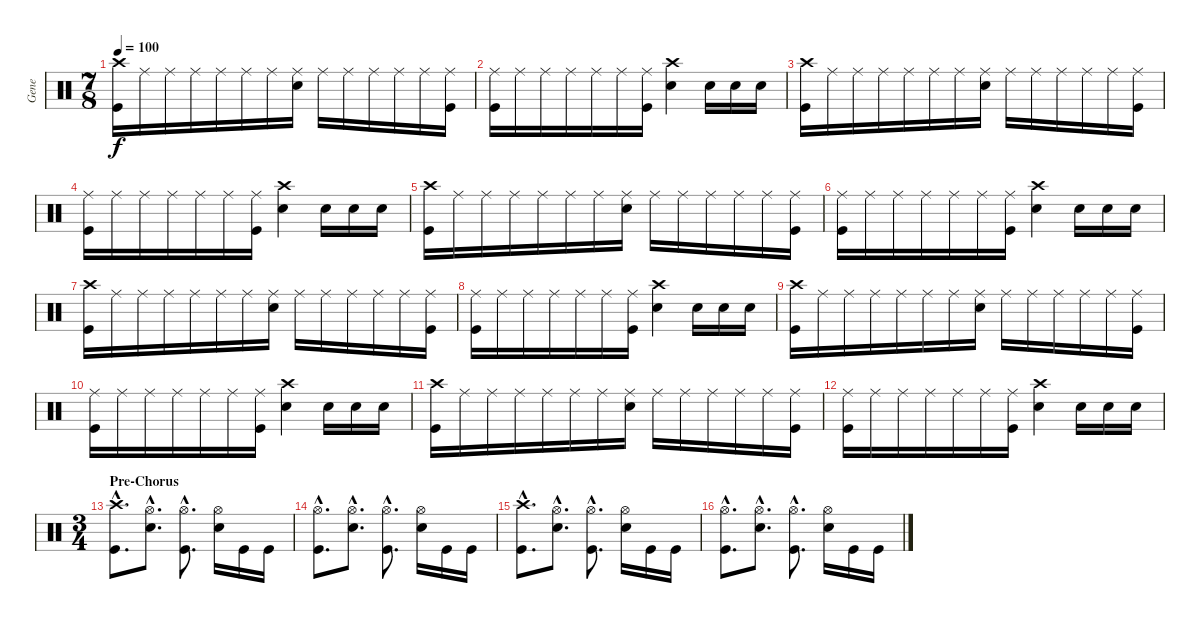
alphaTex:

\track ("Gene" "Gene") {instrument percussion}
\staff {score}
\articulation defaults
\ts (7 8)
\tempo 100
\clef neutral
\ks c
("Crash high (hit)" "Kick (hit)").16{dy f} "Ride (middle)".16 "Ride (middle)".16 "Ride (middle)".16 "Ride (middle)".16 "Ride (middle)".16 "Ride (middle)".16 ("Ride (middle)" "Snare (hit) 2").16 "Ride (middle)".16 "Ride (middle)".16 "Ride (middle)".16 "Ride (middle)".16 "Ride (middle)".16 ("Ride (middle)" "Kick (hit)").16 |
("Ride (middle)" "Kick (hit)").16 "Ride (middle)".16 "Ride (middle)".16 "Ride (middle)".16 "Ride (middle)".16 "Ride (middle)".16 ("Ride (middle)" "Kick (hit)").16 ("Crash high (hit)" "Snare (hit) 2").4 "Snare (hit) 2".16 "Snare (hit) 2".16 "Snare (hit) 2".16 |
("Crash high (hit)" "Kick (hit)").16 "Ride (middle)".16 "Ride (middle)".16 "Ride (middle)".16 "Ride (middle)".16 "Ride (middle)".16 "Ride (middle)".16 ("Ride (middle)" "Snare (hit) 2").16 "Ride (middle)".16 "Ride (middle)".16 "Ride (middle)".16 "Ride (middle)".16 "Ride (middle)".16 ("Ride (middle)" "Kick (hit)").16 |
("Ride (middle)" "Kick (hit)").16 "Ride (middle)".16 "Ride (middle)".16 "Ride (middle)".16 "Ride (middle)".16 "Ride (middle)".16 ("Ride (middle)" "Kick (hit)").16 ("Crash high (hit)" "Snare (hit) 2").4 "Snare (hit) 2".16 "Snare (hit) 2".16 "Snare (hit) 2".16 |
("Crash high (hit)" "Kick (hit)").16 "Ride (middle)".16 "Ride (middle)".16 "Ride (middle)".16 "Ride (middle)".16 "Ride (middle)".16 "Ride (middle)".16 ("Ride (middle)" "Snare (hit) 2").16 "Ride (middle)".16 "Ride (middle)".16 "Ride (middle)".16 "Ride (middle)".16 "Ride (middle)".16 ("Ride (middle)" "Kick (hit)").16 |
("Ride (middle)" "Kick (hit)").16 "Ride (middle)".16 "Ride (middle)".16 "Ride (middle)".16 "Ride (middle)".16 "Ride (middle)".16 ("Ride (middle)" "Kick (hit)").16 ("Crash high (hit)" "Snare (hit) 2").4 "Snare (hit) 2".16 "Snare (hit) 2".16 "Snare (hit) 2".16 |
("Crash high (hit)" "Kick (hit)").16 "Ride (middle)".16 "Ride (middle)".16 "Ride (middle)".16 "Ride (middle)".16 "Ride (middle)".16 "Ride (middle)".16 ("Ride (middle)" "Snare (hit) 2").16 "Ride (middle)".16 "Ride (middle)".16 "Ride (middle)".16 "Ride (middle)".16 "Ride (middle)".16 ("Ride (middle)" "Kick (hit)").16 |
("Ride (middle)" "Kick (hit)").16 "Ride (middle)".16 "Ride (middle)".16 "Ride (middle)".16 "Ride (middle)".16 "Ride (middle)".16 ("Ride (middle)" "Kick (hit)").16 ("Crash high (hit)" "Snare (hit) 2").4 "Snare (hit) 2".16 "Snare (hit) 2".16 "Snare (hit) 2".16 |
("Crash high (hit)" "Kick (hit)").16 "Ride (middle)".16 "Ride (middle)".16 "Ride (middle)".16 "Ride (middle)".16 "Ride (middle)".16 "Ride (middle)".16 ("Ride (middle)" "Snare (hit) 2").16 "Ride (middle)".16 "Ride (middle)".16 "Ride (middle)".16 "Ride (middle)".16 "Ride (middle)".16 ("Ride (middle)" "Kick (hit)").16 |
("Ride (middle)" "Kick (hit)").16 "Ride (middle)".16 "Ride (middle)".16 "Ride (middle)".16 "Ride (middle)".16 "Ride (middle)".16 ("Ride (middle)" "Kick (hit)").16 ("Crash high (hit)" "Snare (hit) 2").4 "Snare (hit) 2".16 "Snare (hit) 2".16 "Snare (hit) 2".16 |
("Crash high (hit)" "Kick (hit)").16 "Ride (middle)".16 "Ride (middle)".16 "Ride (middle)".16 "Ride (middle)".16 "Ride (middle)".16 "Ride (middle)".16 ("Ride (middle)" "Snare (hit) 2").16 "Ride (middle)".16 "Ride (middle)".16 "Ride (middle)".16 "Ride (middle)".16 "Ride (middle)".16 ("Ride (middle)" "Kick (hit)").16 |
("Ride (middle)" "Kick (hit)").16 "Ride (middle)".16 "Ride (middle)".16 "Ride (middle)".16 "Ride (middle)".16 "Ride (middle)".16 ("Ride (middle)" "Kick (hit)").16 ("Crash high (hit)" "Snare (hit) 2").4 "Snare (hit) 2".16 "Snare (hit) 2".16 "Snare (hit) 2".16 |
\ts (3 4)
\section ("" "Pre-Chorus")
("Crash high (hit)"{hac} "Kick (hit)"{hac}).8{d} ("Hi-Hat (open)"{hac} "Snare (hit) 2"{hac}).8{d} ("Hi-Hat (open)"{hac} "Kick (hit)"{hac}).8{d} ("Hi-Hat (open)" "Snare (hit) 2").16 "Kick (hit)".16 "Kick (hit)".16 |
("Hi-Hat (open)"{hac} "Kick (hit)"{hac}).8{d} ("Hi-Hat (open)"{hac} "Snare (hit) 2"{hac}).8{d} ("Hi-Hat (open)"{hac} "Kick (hit)"{hac}).8{d} ("Hi-Hat (open)" "Snare (hit) 2").16 "Kick (hit)".16 "Kick (hit)".16 |
("Crash high (hit)"{hac} "Kick (hit)"{hac}).8{d} ("Hi-Hat (open)"{hac} "Snare (hit) 2"{hac}).8{d} ("Hi-Hat (open)"{hac} "Kick (hit)"{hac}).8{d} ("Hi-Hat (open)" "Snare (hit) 2").16 "Kick (hit)".16 "Kick (hit)".16 |
("Hi-Hat (open)"{hac} "Kick (hit)"{hac}).8{d} ("Hi-Hat (open)"{hac} "Snare (hit) 2"{hac}).8{d} ("Hi-Hat (open)"{hac} "Kick (hit)"{hac}).8{d} ("Hi-Hat (open)" "Snare (hit) 2").16 "Kick (hit)".16 "Kick (hit)".16
